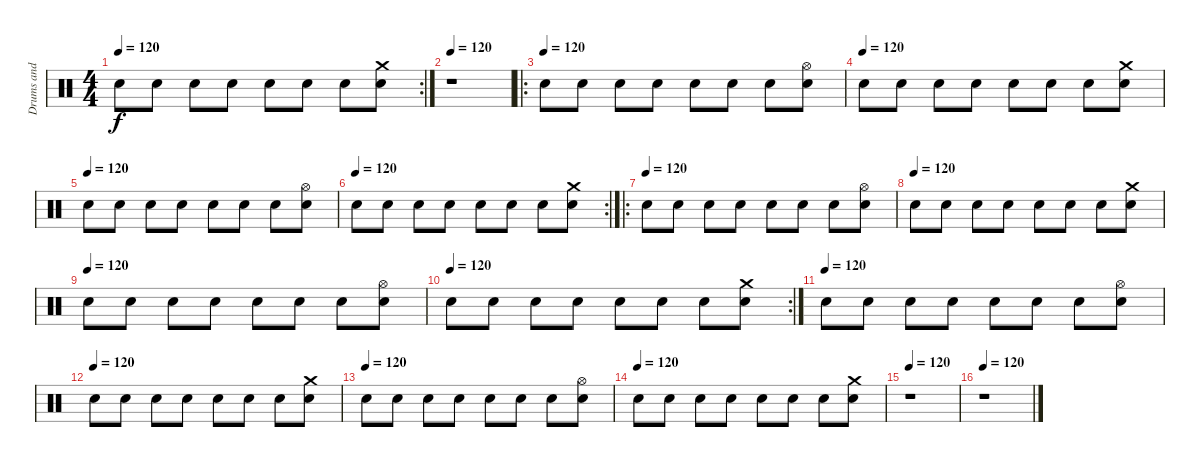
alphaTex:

\track ("Drums and Percussion" "Drums and ") {instrument percussion}
\staff {score}
\articulation defaults
\rc 2
\ts (4 4)
\tempo 120
\clef neutral
\ks c "Electric Snare (hit)".8{dy f} "Snare (hit) 2".8 "Electric Snare (hit)".8 "Snare (hit) 2".8 "Electric Snare (hit)".8 "Snare (hit) 2".8 "Electric Snare (hit)".8
("Crash medium (hit)" "Snare (hit) 2").8 |
\tempo 120
r.1 |
\ro
\tempo (120)
"Electric Snare (hit)".8 "Snare (hit) 2".8 "Electric Snare (hit)".8 "Snare (hit) 2".8 "Electric Snare (hit)".8 "Snare (hit) 2".8 "Electric Snare (hit)".8 ("Hi-Hat (open)" "Snare (hit) 2").8 |
\tempo (120)
"Electric Snare (hit)".8 "Snare (hit) 2".8 "Electric Snare (hit)".8 "Snare (hit) 2".8 "Electric Snare (hit)".8 "Snare (hit) 2".8 "Electric Snare (hit)".8 ("Crash medium (hit)" "Snare (hit) 2").8 |
\tempo (120)
"Electric Snare (hit)".8 "Snare (hit) 2".8 "Electric Snare (hit)".8 "Snare (hit) 2".8 "Electric Snare (hit)".8 "Snare (hit) 2".8 "Electric Snare (hit)".8 ("Hi-Hat (open)" "Snare (hit) 2").8 |
\rc 2
\tempo (120)
"Electric Snare (hit)".8 "Snare (hit) 2".8 "Electric Snare (hit)".8 "Snare (hit) 2".8 "Electric Snare (hit)".8 "Snare (hit) 2".8 "Electric Snare (hit)".8 ("Crash medium (hit)" "Snare (hit) 2").8 |
\ro
\tempo (120)
"Electric Snare (hit)".8 "Snare (hit) 2".8 "Electric Snare (hit)".8 "Snare (hit) 2".8 "Electric Snare (hit)".8 "Snare (hit) 2".8 "Electric Snare (hit)".8 ("Hi-Hat (open)" "Snare (hit) 2").8 |
\tempo (120)
"Electric Snare (hit)".8 "Snare (hit) 2".8 "Electric Snare (hit)".8 "Snare (hit) 2".8 "Electric Snare (hit)".8 "Snare (hit) 2".8 "Electric Snare (hit)".8 ("Crash medium (hit)" "Snare (hit) 2").8 |
\tempo (120)
"Electric Snare (hit)".8 "Snare (hit) 2".8 "Electric Snare (hit)".8 "Snare (hit) 2".8 "Electric Snare (hit)".8 "Snare (hit) 2".8 "Electric Snare (hit)".8 ("Hi-Hat (open)" "Snare (hit) 2").8 |
\rc 2
\tempo (120)
"Electric Snare (hit)".8 "Snare (hit) 2".8 "Electric Snare (hit)".8 "Snare (hit) 2".8 "Electric Snare (hit)".8 "Snare (hit) 2".8 "Electric Snare (hit)".8 ("Crash medium (hit)" "Snare (hit) 2").8 |
\tempo (120)
"Electric Snare (hit)".8 "Snare (hit) 2".8 "Electric Snare (hit)".8 "Snare (hit) 2".8 "Electric Snare (hit)".8 "Snare (hit) 2".8 "Electric Snare (hit)".8 ("Hi-Hat (open)" "Snare (hit) 2").8 |
\tempo (120)
"Electric Snare (hit)".8 "Snare (hit) 2".8 "Electric Snare (hit)".8 "Snare (hit) 2".8 "Electric Snare (hit)".8 "Snare (hit) 2".8 "Electric Snare (hit)".8 ("Crash medium (hit)" "Snare (hit) 2").8 |
\tempo (120)
"Electric Snare (hit)".8 "Snare (hit) 2".8 "Electric Snare (hit)".8 "Snare (hit) 2".8 "Electric Snare (hit)".8 "Snare (hit) 2".8 "Electric Snare (hit)".8 ("Hi-Hat (open)" "Snare (hit) 2").8 |
\tempo (120)
"Electric Snare (hit)".8 "Snare (hit) 2".8 "Electric Snare (hit)".8 "Snare (hit) 2".8 "Electric Snare (hit)".8 "Snare (hit) 2".8 "Electric Snare (hit)".8 ("Crash medium (hit)" "Snare (hit) 2").8 |
\tempo 120
r.1 |
\tempo 120
r.1
